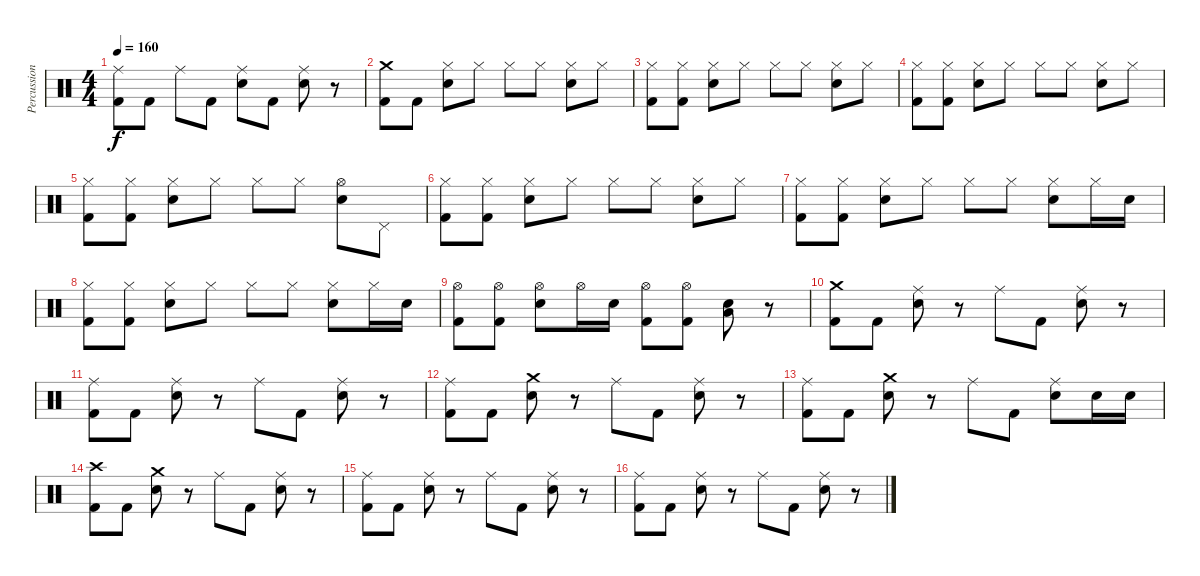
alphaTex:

\track ("Percussion" "Percussion") {instrument percussion}
\staff {score}
\articulation defaults
\ts (4 4)
\tempo 160
\clef neutral
\ks c
("Kick (hit) 2" "Ride (middle)").8{dy f} "Kick (hit) 2".8 "Ride (middle)".8 "Kick (hit) 2".8 ("Snare (hit) 2" "Ride (middle)").8 "Kick (hit) 2".8 ("Snare (hit) 2" "Ride (middle)").8 r.8 |
("Kick (hit) 2" "Crash medium (hit)").8 "Kick (hit) 2".8 ("Snare (hit) 2" "Hi-Hat (closed)").8 "Hi-Hat (closed)".8 "Hi-Hat (closed)".8 "Hi-Hat (closed)".8 ("Snare (hit) 2" "Hi-Hat (closed)").8 "Hi-Hat (closed)".8 |
("Kick (hit) 2" "Hi-Hat (closed)").8 ("Kick (hit) 2" "Hi-Hat (closed)").8 ("Snare (hit) 2" "Hi-Hat (closed)").8 "Hi-Hat (closed)".8 "Hi-Hat (closed)".8 "Hi-Hat (closed)".8 ("Snare (hit) 2" "Hi-Hat (closed)").8 "Hi-Hat (closed)".8 |
("Kick (hit) 2" "Hi-Hat (closed)").8 ("Kick (hit) 2" "Hi-Hat (closed)").8 ("Snare (hit) 2" "Hi-Hat (closed)").8 "Hi-Hat (closed)".8 "Hi-Hat (closed)".8 "Hi-Hat (closed)".8 ("Snare (hit) 2" "Hi-Hat (closed)").8 "Hi-Hat (closed)".8 |
("Kick (hit) 2" "Hi-Hat (closed)").8 ("Kick (hit) 2" "Hi-Hat (closed)").8 ("Snare (hit) 2" "Hi-Hat (closed)").8 "Hi-Hat (closed)".8 "Hi-Hat (closed)".8 "Hi-Hat (closed)".8 ("Snare (hit) 2" "Hi-Hat (open)").8 "Pedal Hi-Hat (hit)".8 |
("Kick (hit) 2" "Hi-Hat (closed)").8 ("Kick (hit) 2" "Hi-Hat (closed)").8 ("Snare (hit) 2" "Hi-Hat (closed)").8 "Hi-Hat (closed)".8 "Hi-Hat (closed)".8 "Hi-Hat (closed)".8 ("Snare (hit) 2" "Hi-Hat (closed)").8 "Hi-Hat (closed)".8 |
("Kick (hit) 2" "Hi-Hat (closed)").8 ("Kick (hit) 2" "Hi-Hat (closed)").8 ("Snare (hit) 2" "Hi-Hat (closed)").8 "Hi-Hat (closed)".8 "Hi-Hat (closed)".8 "Hi-Hat (closed)".8 ("Snare (hit) 2" "Hi-Hat (closed)").8 "Hi-Hat (closed)".16 "Snare (hit) 2".16 |
("Kick (hit) 2" "Hi-Hat (closed)").8 ("Kick (hit) 2" "Hi-Hat (closed)").8 ("Snare (hit) 2" "Hi-Hat (closed)").8 "Hi-Hat (closed)".8 "Hi-Hat (closed)".8 "Hi-Hat (closed)".8 ("Snare (hit) 2" "Hi-Hat (closed)").8 "Hi-Hat (closed)".16 "Snare (hit) 2".16 |
("Kick (hit) 2" "Hi-Hat (open)").8 ("Kick (hit) 2" "Hi-Hat (open)").8 ("Snare (hit) 2" "Hi-Hat (open)").8 "Hi-Hat (open)".16 "Snare (hit) 2".16 ("Kick (hit) 2" "Hi-Hat (open)").8 ("Kick (hit) 2" "Hi-Hat (open)").8 ("Snare (hit) 2" "Low Tom (hit)").8 r.8 |
("Kick (hit) 2" "Crash medium (hit)").8 "Kick (hit) 2".8 ("Snare (hit) 2" "Ride (middle)").8 r.8 "Ride (middle)".8 "Kick (hit) 2".8 ("Snare (hit) 2" "Ride (middle)").8 r.8 |
("Kick (hit) 2" "Ride (middle)").8 "Kick (hit) 2".8 ("Snare (hit) 2" "Ride (middle)").8 r.8 "Ride (middle)".8 "Kick (hit) 2".8 ("Snare (hit) 2" "Ride (middle)").8 r.8 |
("Kick (hit) 2" "Ride (middle)").8 "Kick (hit) 2".8 ("Snare (hit) 2" "Crash medium (hit)").8 r.8 "Ride (middle)".8 "Kick (hit) 2".8 ("Snare (hit) 2" "Ride (middle)").8 r.8 |
("Kick (hit) 2" "Ride (middle)").8 "Kick (hit) 2".8 ("Snare (hit) 2" "Crash medium (hit)").8 r.8 "Ride (middle)".8 "Kick (hit) 2".8 ("Snare (hit) 2" "Ride (middle)").8 "Snare (hit) 2".16 "Snare (hit) 2".16 |
("Kick (hit) 2" "Crash high (hit)").8 "Kick (hit) 2".8 ("Snare (hit) 2" "Crash medium (hit)").8 r.8 "Ride (middle)".8 "Kick (hit) 2".8 ("Snare (hit) 2" "Ride (middle)").8 r.8 |
("Kick (hit) 2" "Ride (middle)").8 "Kick (hit) 2".8 ("Snare (hit) 2" "Ride (middle)").8 r.8 "Ride (middle)".8 "Kick (hit) 2".8 ("Snare (hit) 2" "Ride (middle)").8 r.8 |
("Kick (hit) 2" "Ride (middle)").8 "Kick (hit) 2".8 ("Snare (hit) 2" "Ride (middle)").8 r.8 "Ride (middle)".8 "Kick (hit) 2".8 ("Snare (hit) 2" "Ride (middle)").8 r.8
